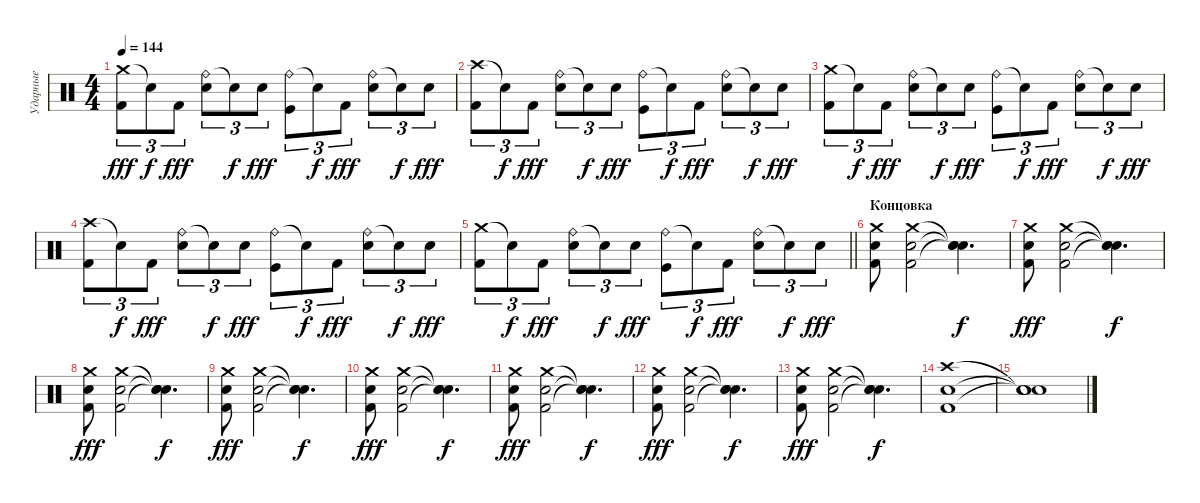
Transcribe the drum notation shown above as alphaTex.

\track ("Ударные" "Ударные") {instrument percussion}
\staff {score}
\articulation defaults
\ts (4 4)
\tempo 144
\clef neutral
\ks c
("Crash medium (hit)" "Kick (hit) 2").8{tu (3 2) dy fff} "Snare (hit)"{t}.8{tu (3 2) dy f} "Kick (hit) 2".8{tu (3 2) dy fff} ("Ride (bell)" "Snare (hit) 2").8{tu (3 2)} "Snare (hit)"{t}.8{tu (3 2) dy f} "Snare (hit) 2".8{tu (3 2) dy fff} ("Ride (bell)" "Kick (hit)").8{tu (3 2)} "Snare (hit)"{t}.8{tu (3 2) dy f} "Kick (hit) 2".8{tu (3 2) dy fff} ("Ride (bell)" "Snare (hit) 2").8{tu (3 2)} "Snare (hit)"{t}.8{tu (3 2) dy f} "Snare (hit) 2".8{tu (3 2) dy fff} |
("Crash high (hit)" "Kick (hit) 2").8{tu (3 2)} "Snare (hit)"{t}.8{tu (3 2) dy f} "Kick (hit) 2".8{tu (3 2) dy fff} ("Ride (bell)" "Snare (hit) 2").8{tu (3 2)} "Snare (hit)"{t}.8{tu (3 2) dy f} "Snare (hit) 2".8{tu (3 2) dy fff} ("Ride (bell)" "Kick (hit)").8{tu (3 2)} "Snare (hit)"{t}.8{tu (3 2) dy f} "Kick (hit) 2".8{tu (3 2) dy fff} ("Ride (bell)" "Snare (hit) 2").8{tu (3 2)} "Snare (hit)"{t}.8{tu (3 2) dy f} "Snare (hit) 2".8{tu (3 2) dy fff} |
("Crash medium (hit)" "Kick (hit) 2").8{tu (3 2)} "Snare (hit)"{t}.8{tu (3 2) dy f} "Kick (hit) 2".8{tu (3 2) dy fff} ("Ride (bell)" "Snare (hit) 2").8{tu (3 2)} "Snare (hit)"{t}.8{tu (3 2) dy f} "Snare (hit) 2".8{tu (3 2) dy fff} ("Ride (bell)" "Kick (hit)").8{tu (3 2)} "Snare (hit)"{t}.8{tu (3 2) dy f} "Kick (hit) 2".8{tu (3 2) dy fff} ("Ride (bell)" "Snare (hit) 2").8{tu (3 2)} "Snare (hit)"{t}.8{tu (3 2) dy f} "Snare (hit) 2".8{tu (3 2) dy fff} |
("Crash high (hit)" "Kick (hit) 2").8{tu (3 2)} "Snare (hit)"{t}.8{tu (3 2) dy f} "Kick (hit) 2".8{tu (3 2) dy fff} ("Ride (bell)" "Snare (hit) 2").8{tu (3 2)} "Snare (hit)"{t}.8{tu (3 2) dy f} "Snare (hit) 2".8{tu (3 2) dy fff} ("Ride (bell)" "Kick (hit)").8{tu (3 2)} "Snare (hit)"{t}.8{tu (3 2) dy f} "Kick (hit) 2".8{tu (3 2) dy fff} ("Ride (bell)" "Snare (hit) 2").8{tu (3 2)} "Snare (hit)"{t}.8{tu (3 2) dy f} "Snare (hit) 2".8{tu (3 2) dy fff} |
\barLineRight lightlight
("Crash medium (hit)" "Kick (hit) 2").8{tu (3 2)} "Snare (hit)"{t}.8{tu (3 2) dy f} "Kick (hit) 2".8{tu (3 2) dy fff} ("Ride (bell)" "Snare (hit) 2").8{tu (3 2)} "Snare (hit)"{t}.8{tu (3 2) dy f} "Snare (hit) 2".8{tu (3 2) dy fff} ("Ride (bell)" "Kick (hit)").8{tu (3 2)} "Snare (hit)"{t}.8{tu (3 2) dy f} "Kick (hit) 2".8{tu (3 2) dy fff} ("Ride (bell)" "Snare (hit) 2").8{tu (3 2)} "Snare (hit)"{t}.8{tu (3 2) dy f} "Snare (hit) 2".8{tu (3 2) dy fff} |
\section ("" "Концовка")
("Crash medium (hit)" "Snare (hit) 2" "Kick (hit) 2").8 ("Crash medium (hit)" "Snare (hit) 2" "Kick (hit) 2").2 ("Snare (hit)"{t} "Snare (hit)"{t} "Snare (hit)"{t}).4{d dy f} |
("Crash medium (hit)" "Snare (hit) 2" "Kick (hit) 2").8{dy fff} ("Crash medium (hit)" "Snare (hit) 2" "Kick (hit) 2").2 ("Snare (hit)"{t} "Snare (hit)"{t} "Snare (hit)"{t}).4{d dy f} |
("Crash medium (hit)" "Snare (hit) 2" "Kick (hit) 2").8{dy fff} ("Crash medium (hit)" "Snare (hit) 2" "Kick (hit) 2").2 ("Snare (hit)"{t} "Snare (hit)"{t} "Snare (hit)"{t}).4{d dy f} |
("Crash medium (hit)" "Snare (hit) 2" "Kick (hit) 2").8{dy fff} ("Crash medium (hit)" "Snare (hit) 2" "Kick (hit) 2").2 ("Snare (hit)"{t} "Snare (hit)"{t} "Snare (hit)"{t}).4{d dy f} |
("Crash medium (hit)" "Snare (hit) 2" "Kick (hit) 2").8{dy fff} ("Crash medium (hit)" "Snare (hit) 2" "Kick (hit) 2").2 ("Snare (hit)"{t} "Snare (hit)"{t} "Snare (hit)"{t}).4{d dy f} |
("Crash medium (hit)" "Snare (hit) 2" "Kick (hit) 2").8{dy fff} ("Crash medium (hit)" "Snare (hit) 2" "Kick (hit) 2").2 ("Snare (hit)"{t} "Snare (hit)"{t} "Snare (hit)"{t}).4{d dy f} |
("Crash medium (hit)" "Snare (hit) 2" "Kick (hit) 2").8{dy fff} ("Crash medium (hit)" "Snare (hit) 2" "Kick (hit) 2").2 ("Snare (hit)"{t} "Snare (hit)"{t} "Snare (hit)"{t}).4{d dy f} |
("Crash medium (hit)" "Snare (hit) 2" "Kick (hit) 2").8{dy fff} ("Crash medium (hit)" "Snare (hit) 2" "Kick (hit) 2").2 ("Snare (hit)"{t} "Snare (hit)"{t} "Snare (hit)"{t}).4{d dy f} |
("Crash high (hit)" "Kick (hit) 2" "Snare (hit) 2").1 |
("Snare (hit)"{t} "Snare (hit)"{t} "Snare (hit)"{t}).1
